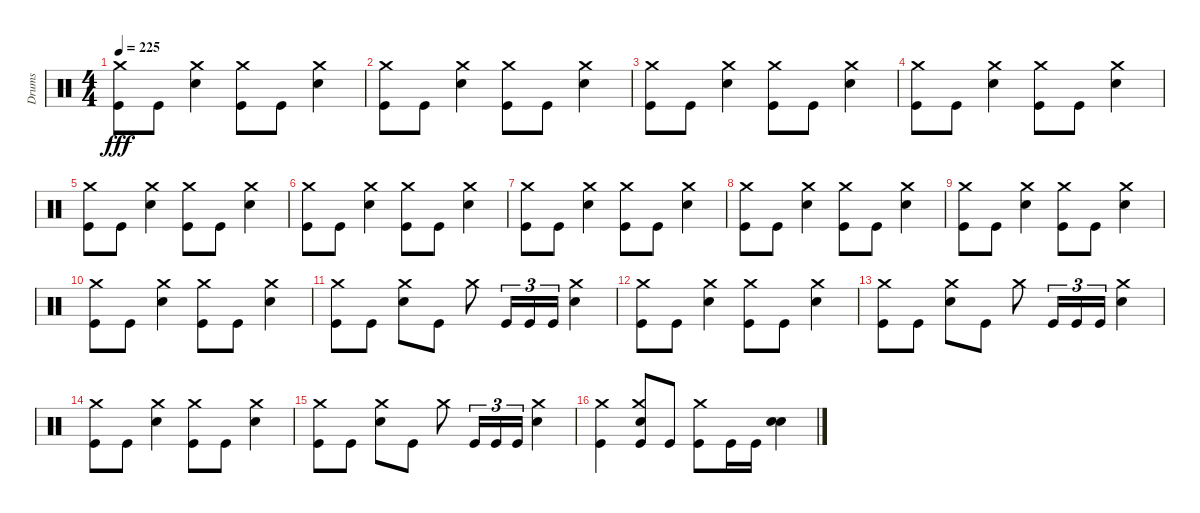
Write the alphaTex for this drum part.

\track ("Drums" "Drums") {instrument percussion}
\staff {score}
\articulation defaults
\ts (4 4)
\tempo 225
\clef neutral
\ks c
("Kick (hit)" "Crash medium (hit)").8{dy fff} "Kick (hit)".8 ("Snare (hit) 2" "Crash medium (hit)").4 ("Kick (hit)" "Crash medium (hit)").8 "Kick (hit)".8 ("Snare (hit) 2" "Crash medium (hit)").4 |
("Kick (hit)" "Crash medium (hit)").8 "Kick (hit)".8 ("Snare (hit) 2" "Crash medium (hit)").4 ("Kick (hit)" "Crash medium (hit)").8 "Kick (hit)".8 ("Snare (hit) 2" "Crash medium (hit)").4 |
("Kick (hit)" "Crash medium (hit)").8 "Kick (hit)".8 ("Snare (hit) 2" "Crash medium (hit)").4 ("Kick (hit)" "Crash medium (hit)").8 "Kick (hit)".8 ("Snare (hit) 2" "Crash medium (hit)").4 |
("Kick (hit)" "Crash medium (hit)").8 "Kick (hit)".8 ("Snare (hit) 2" "Crash medium (hit)").4 ("Kick (hit)" "Crash medium (hit)").8 "Kick (hit)".8 ("Snare (hit) 2" "Crash medium (hit)").4 |
("Kick (hit)" "Crash medium (hit)").8 "Kick (hit)".8 ("Snare (hit) 2" "Crash medium (hit)").4 ("Kick (hit)" "Crash medium (hit)").8 "Kick (hit)".8 ("Snare (hit) 2" "Crash medium (hit)").4 |
("Kick (hit)" "Crash medium (hit)").8 "Kick (hit)".8 ("Snare (hit) 2" "Crash medium (hit)").4 ("Kick (hit)" "Crash medium (hit)").8 "Kick (hit)".8 ("Snare (hit) 2" "Crash medium (hit)").4 |
("Kick (hit)" "Crash medium (hit)").8 "Kick (hit)".8 ("Snare (hit) 2" "Crash medium (hit)").4 ("Kick (hit)" "Crash medium (hit)").8 "Kick (hit)".8 ("Snare (hit) 2" "Crash medium (hit)").4 |
("Kick (hit)" "Crash medium (hit)").8 "Kick (hit)".8 ("Snare (hit) 2" "Crash medium (hit)").4 ("Kick (hit)" "Crash medium (hit)").8 "Kick (hit)".8 ("Snare (hit) 2" "Crash medium (hit)").4 |
("Kick (hit)" "Crash medium (hit)").8 "Kick (hit)".8 ("Snare (hit) 2" "Crash medium (hit)").4 ("Kick (hit)" "Crash medium (hit)").8 "Kick (hit)".8 ("Snare (hit) 2" "Crash medium (hit)").4 |
("Kick (hit)" "Crash medium (hit)").8 "Kick (hit)".8 ("Snare (hit) 2" "Crash medium (hit)").4 ("Kick (hit)" "Crash medium (hit)").8 "Kick (hit)".8 ("Snare (hit) 2" "Crash medium (hit)").4 |
("Kick (hit)" "Crash medium (hit)").8 "Kick (hit)".8 ("Snare (hit) 2" "Crash medium (hit)").8 "Kick (hit)".8 "Crash medium (hit)".8 "Kick (hit)".16{tu (3 2)} "Kick (hit)".16{tu (3 2)} "Kick (hit)".16{tu (3 2)} ("Snare (hit) 2" "Crash medium (hit)").4 |
("Kick (hit)" "Crash medium (hit)").8 "Kick (hit)".8 ("Snare (hit) 2" "Crash medium (hit)").4 ("Kick (hit)" "Crash medium (hit)").8 "Kick (hit)".8 ("Snare (hit) 2" "Crash medium (hit)").4 |
("Kick (hit)" "Crash medium (hit)").8 "Kick (hit)".8 ("Snare (hit) 2" "Crash medium (hit)").8 "Kick (hit)".8 "Crash medium (hit)".8 "Kick (hit)".16{tu (3 2)} "Kick (hit)".16{tu (3 2)} "Kick (hit)".16{tu (3 2)} ("Snare (hit) 2" "Crash medium (hit)").4 |
("Kick (hit)" "Crash medium (hit)").8 "Kick (hit)".8 ("Snare (hit) 2" "Crash medium (hit)").4 ("Kick (hit)" "Crash medium (hit)").8 "Kick (hit)".8 ("Snare (hit) 2" "Crash medium (hit)").4 |
("Kick (hit)" "Crash medium (hit)").8 "Kick (hit)".8 ("Snare (hit) 2" "Crash medium (hit)").8 "Kick (hit)".8 "Crash medium (hit)".8 "Kick (hit)".16{tu (3 2)} "Kick (hit)".16{tu (3 2)} "Kick (hit)".16{tu (3 2)} ("Snare (hit) 2" "Crash medium (hit)").4 |
("Kick (hit)" "Crash medium (hit)").4 ("Kick (hit)" "Snare (hit) 2" "Crash medium (hit)").8 "Kick (hit)".8 ("Kick (hit)" "Crash medium (hit)").8 "Kick (hit)".16 "Kick (hit)".16 ("Snare (hit) 2" "Snare (hit) 2").4
